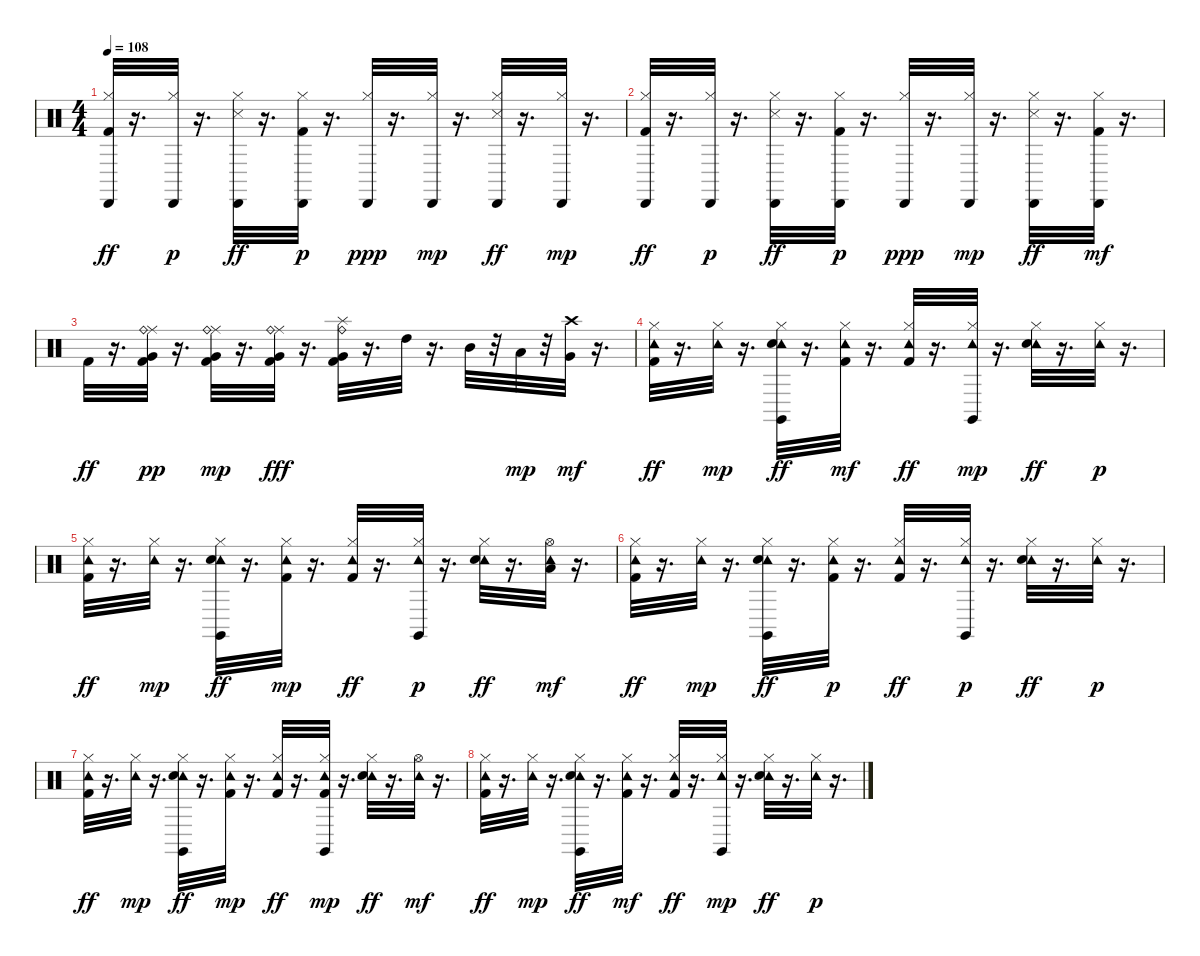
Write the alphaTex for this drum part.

\track "" {instrument percussion}
\staff {score}
\articulation defaults
\ts (4 4)
\tempo 108
\clef neutral
\ks c
("Hi-Hat (closed)" "Cabasa (hit)" "Kick (hit) 2").32{dy ff} r.16{d} ("Hi-Hat (closed)" "Cabasa (hit)").32{dy p} r.16{d} ("Hi-Hat (closed)" "Cabasa (hit)" "Snare (side stick) 3").32{dy ff} r.16{d} ("Hi-Hat (closed)" "Cabasa (hit)" "Kick (hit) 2").32{dy p} r.16{d} ("Hi-Hat (closed)" "Cabasa (hit)").32{dy ppp} r.16{d} ("Cabasa (hit)" "Hi-Hat (closed)").32{dy mp} r.16{d} ("Hi-Hat (closed)" "Cabasa (hit)" "Snare (side stick) 3").32{dy ff} r.16{d} ("Cabasa (hit)" "Hi-Hat (closed)").32{dy mp} r.16{d} |
("Hi-Hat (closed)" "Cabasa (hit)" "Kick (hit) 2").32{dy ff} r.16{d} ("Hi-Hat (closed)" "Cabasa (hit)").32{dy p} r.16{d} ("Hi-Hat (closed)" "Cabasa (hit)" "Snare (side stick) 3").32{dy ff} r.16{d} ("Hi-Hat (closed)" "Cabasa (hit)" "Kick (hit) 2").32{dy p} r.16{d} ("Hi-Hat (closed)" "Cabasa (hit)").32{dy ppp} r.16{d} ("Cabasa (hit)" "Hi-Hat (closed)").32{dy mp} r.16{d} ("Hi-Hat (closed)" "Cabasa (hit)" "Snare (side stick) 3").32{dy ff} r.16{d} ("Cabasa (hit)" "Hi-Hat (closed)" "Kick (hit) 2").32{dy mf} r.16{d} |
"Kick (hit) 2".32{dy ff} r.16{d} ("Very Low Tom (hit)" "Ride (middle)" "Kick (hit) 2" "Ride (bell)").32{dy pp} r.16{d} ("Very Low Tom (hit)" "Ride (middle)" "Kick (hit) 2" "Ride (bell)").32{dy mp} r.16{d} ("Very Low Tom (hit)" "Ride (middle)" "Kick (hit) 2" "Ride (bell)").32{dy fff} r.16{d} ("Very Low Tom (hit)" "Kick (hit) 2" "Ride (bell)" "Splash (hit)").32 r.16{d} "High Tom (hit)".32 r.16{d} "Mid Tom (hit)".32 r.32 "Low Tom (hit)".32{dy mp} r.32 ("Very Low Tom (hit)" "Crash high (hit)").32{dy mf} r.16{d} |
("Hi-Hat (closed)" "Tambourine (hit)" "Kick (hit) 2").32{dy ff} r.16{d} ("Hi-Hat (closed)" "Tambourine (hit)").32{dy mp} r.16{d} ("Hi-Hat (closed)" "Tambourine (hit)" "Claves (hit)" "Snare (hit) 2").32{dy ff} r.16{d} ("Hi-Hat (closed)" "Tambourine (hit)" "Kick (hit) 2").32{dy mf} r.16{d} ("Hi-Hat (closed)" "Tambourine (hit)" "Kick (hit) 2").32{dy ff} r.16{d} ("Tambourine (hit)" "Hi-Hat (closed)" "Claves (hit)").32{dy mp} r.16{d} ("Hi-Hat (closed)" "Tambourine (hit)" "Snare (hit) 2").32{dy ff} r.16{d} ("Hi-Hat (closed)" "Tambourine (hit)").32{dy p} r.16{d} |
("Hi-Hat (closed)" "Tambourine (hit)" "Kick (hit) 2").32{dy ff} r.16{d} ("Hi-Hat (closed)" "Tambourine (hit)").32{dy mp} r.16{d} ("Hi-Hat (closed)" "Tambourine (hit)" "Claves (hit)" "Snare (hit) 2").32{dy ff} r.16{d} ("Tambourine (hit)" "Hi-Hat (closed)" "Kick (hit) 2").32{dy mp} r.16{d} ("Tambourine (hit)" "Hi-Hat (closed)" "Kick (hit) 2").32{dy ff} r.16{d} ("Tambourine (hit)" "Hi-Hat (closed)" "Claves (hit)").32{dy p} r.16{d} ("Hi-Hat (closed)" "Tambourine (hit)" "Snare (hit) 2").32{dy ff} r.16{d} ("Tambourine (hit)" "Hi-Hat (open)" "Low Tom (hit)").32{dy mf} r.16{d} |
("Hi-Hat (closed)" "Tambourine (hit)" "Kick (hit) 2").32{dy ff} r.16{d} ("Hi-Hat (closed)" "Tambourine (hit)").32{dy mp} r.16{d} ("Hi-Hat (closed)" "Tambourine (hit)" "Claves (hit)" "Snare (hit) 2").32{dy ff} r.16{d} ("Hi-Hat (closed)" "Tambourine (hit)" "Kick (hit) 2").32{dy p} r.16{d} ("Tambourine (hit)" "Hi-Hat (closed)" "Kick (hit) 2").32{dy ff} r.16{d} ("Tambourine (hit)" "Claves (hit)" "Hi-Hat (closed)").32{dy p} r.16{d} ("Hi-Hat (closed)" "Tambourine (hit)" "Snare (hit) 2").32{dy ff} r.16{d} ("Hi-Hat (closed)" "Tambourine (hit)").32{dy p} r.16{d} |
("Hi-Hat (closed)" "Tambourine (hit)" "Kick (hit) 2").32{dy ff} r.16{d} ("Hi-Hat (closed)" "Tambourine (hit)").32{dy mp} r.16{d} ("Hi-Hat (closed)" "Tambourine (hit)" "Claves (hit)" "Snare (hit) 2").32{dy ff} r.16{d} ("Tambourine (hit)" "Hi-Hat (closed)" "Kick (hit) 2").32{dy mp} r.16{d} ("Hi-Hat (closed)" "Tambourine (hit)" "Kick (hit) 2").32{dy ff} r.16{d} ("Hi-Hat (closed)" "Tambourine (hit)" "Claves (hit)" "Kick (hit) 2").32{dy mp} r.16{d} ("Hi-Hat (closed)" "Tambourine (hit)" "Snare (hit) 2").32{dy ff} r.16{d} ("Tambourine (hit)" "Hi-Hat (open)").32{dy mf} r.16{d} |
("Hi-Hat (closed)" "Tambourine (hit)" "Kick (hit) 2").32{dy ff} r.16{d} ("Hi-Hat (closed)" "Tambourine (hit)").32{dy mp} r.16{d} ("Hi-Hat (closed)" "Tambourine (hit)" "Claves (hit)" "Snare (hit) 2").32{dy ff} r.16{d} ("Hi-Hat (closed)" "Tambourine (hit)" "Kick (hit) 2").32{dy mf} r.16{d} ("Hi-Hat (closed)" "Tambourine (hit)" "Kick (hit) 2").32{dy ff} r.16{d} ("Tambourine (hit)" "Hi-Hat (closed)" "Claves (hit)").32{dy mp} r.16{d} ("Hi-Hat (closed)" "Tambourine (hit)" "Snare (hit) 2").32{dy ff} r.16{d} ("Tambourine (hit)" "Hi-Hat (closed)").32{dy p} r.16{d}
